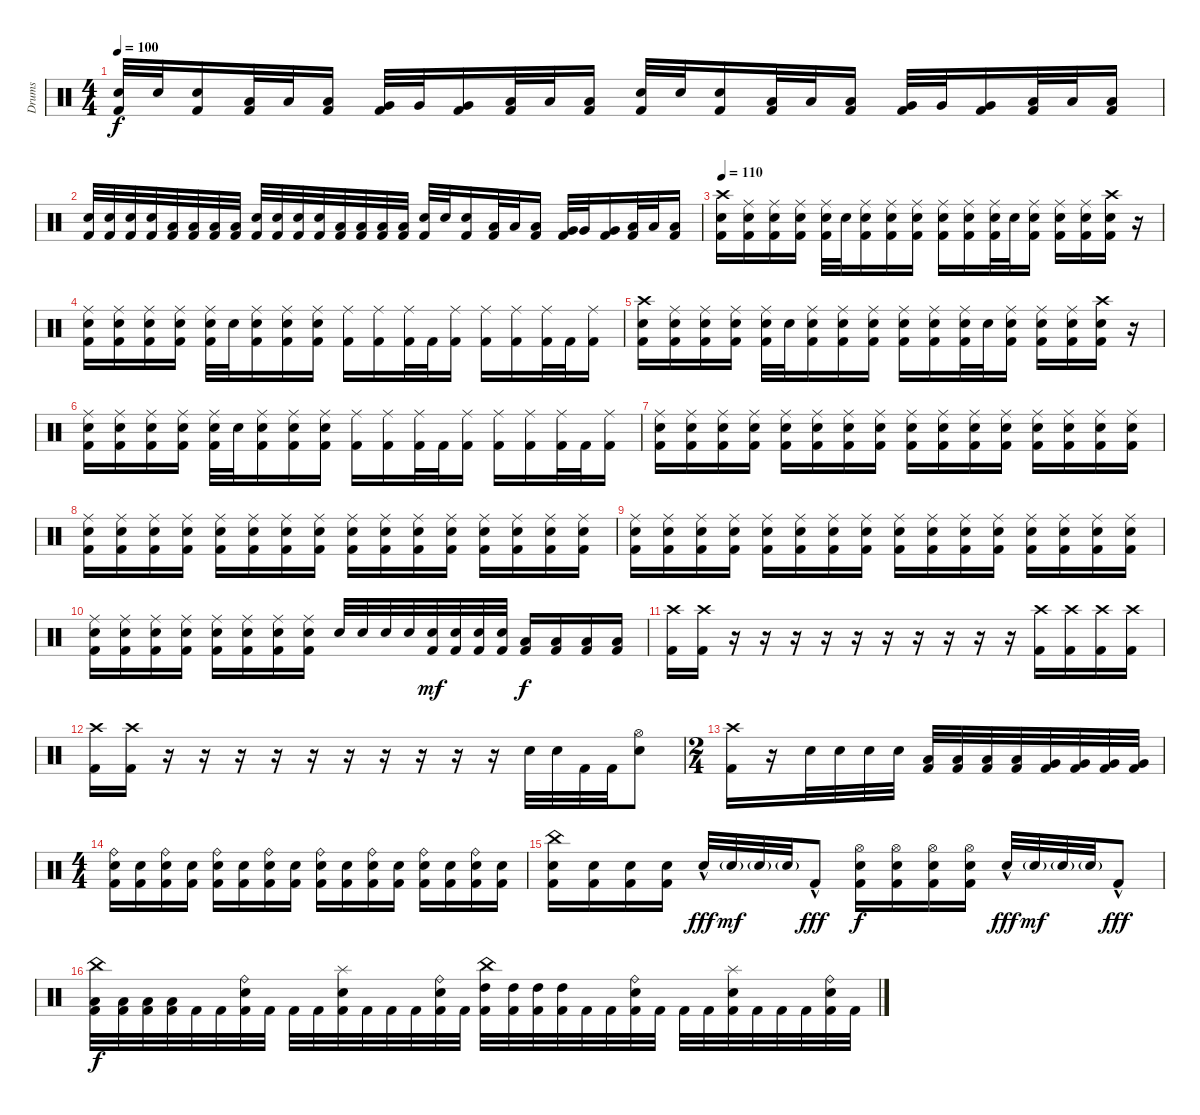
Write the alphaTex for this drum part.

\track ("Drums " "Drums ") {instrument percussion}
\staff {score}
\articulation defaults
\ts (4 4)
\tempo 100
\clef neutral
\ks c
("Kick (hit) 2" "Electric Snare (hit)").32{dy f} "Electric Snare (hit)".32 ("Kick (hit) 2" "Electric Snare (hit)").16 ("Kick (hit) 2" "Low Tom (hit)").32 "Low Tom (hit)".32 ("Kick (hit) 2" "Low Tom (hit)").16 ("Kick (hit) 2" "Very Low Tom (hit)").32 "Very Low Tom (hit)".32 ("Kick (hit) 2" "Very Low Tom (hit)").16 ("Kick (hit) 2" "Low Tom (hit)").32 "Low Tom (hit)".32 ("Kick (hit) 2" "Low Tom (hit)").16 ("Kick (hit) 2" "Electric Snare (hit)").32 "Electric Snare (hit)".32 ("Kick (hit) 2" "Electric Snare (hit)").16 ("Kick (hit) 2" "Low Tom (hit)").32 "Low Tom (hit)".32 ("Kick (hit) 2" "Low Tom (hit)").16 ("Kick (hit) 2" "Very Low Tom (hit)").32 "Very Low Tom (hit)".32 ("Kick (hit) 2" "Very Low Tom (hit)").16 ("Kick (hit) 2" "Low Tom (hit)").32 "Low Tom (hit)".32 ("Kick (hit) 2" "Low Tom (hit)").16 |
("Kick (hit) 2" "Electric Snare (hit)").32 ("Kick (hit) 2" "Electric Snare (hit)").32 ("Kick (hit) 2" "Electric Snare (hit)").32 ("Kick (hit) 2" "Electric Snare (hit)").32 ("Kick (hit) 2" "Low Tom (hit)").32 ("Kick (hit) 2" "Low Tom (hit)").32 ("Kick (hit) 2" "Low Tom (hit)").32 ("Kick (hit) 2" "Low Tom (hit)").32 ("Kick (hit) 2" "Electric Snare (hit)").32 ("Kick (hit) 2" "Electric Snare (hit)").32 ("Kick (hit) 2" "Electric Snare (hit)").32 ("Kick (hit) 2" "Electric Snare (hit)").32 ("Kick (hit) 2" "Low Tom (hit)").32 ("Kick (hit) 2" "Low Tom (hit)").32 ("Kick (hit) 2" "Low Tom (hit)").32 ("Kick (hit) 2" "Low Tom (hit)").32 ("Kick (hit) 2" "Electric Snare (hit)").32 "Electric Snare (hit)".32 ("Kick (hit) 2" "Electric Snare (hit)").16 ("Kick (hit) 2" "Low Tom (hit)").32 "Low Tom (hit)".32 ("Kick (hit) 2" "Low Tom (hit)").16 ("Kick (hit) 2" "Very Low Tom (hit)").32 "Very Low Tom (hit)".32 ("Kick (hit) 2" "Very Low Tom (hit)").16 ("Kick (hit) 2" "Low Tom (hit)").32 "Low Tom (hit)".32 ("Kick (hit) 2" "Low Tom (hit)").16 |
\tempo 110
("Crash high (hit)" "Electric Snare (hit)" "Kick (hit) 2").16 ("Ride (middle)" "Electric Snare (hit)" "Kick (hit) 2").16 ("Ride (middle)" "Electric Snare (hit)" "Kick (hit) 2").16 ("Ride (middle)" "Electric Snare (hit)" "Kick (hit) 2").16 ("Ride (middle)" "Electric Snare (hit)" "Kick (hit) 2").32 "Electric Snare (hit)".32 ("Ride (middle)" "Electric Snare (hit)" "Kick (hit) 2").16 ("Ride (middle)" "Electric Snare (hit)" "Kick (hit) 2").16 ("Ride (middle)" "Electric Snare (hit)" "Kick (hit) 2").16 ("Ride (middle)" "Electric Snare (hit)" "Kick (hit) 2").16 ("Ride (middle)" "Electric Snare (hit)" "Kick (hit) 2").16 ("Ride (middle)" "Electric Snare (hit)" "Kick (hit) 2").32 "Electric Snare (hit)".32 ("Ride (middle)" "Electric Snare (hit)" "Kick (hit) 2").16 ("Ride (middle)" "Electric Snare (hit)" "Kick (hit) 2").16 ("Ride (middle)" "Electric Snare (hit)" "Kick (hit) 2").16 ("Crash high (hit)" "Electric Snare (hit)" "Kick (hit) 2").16 r.16 |
("Ride (middle)" "Electric Snare (hit)" "Kick (hit) 2").16 ("Ride (middle)" "Electric Snare (hit)" "Kick (hit) 2").16 ("Ride (middle)" "Electric Snare (hit)" "Kick (hit) 2").16 ("Ride (middle)" "Electric Snare (hit)" "Kick (hit) 2").16 ("Ride (middle)" "Electric Snare (hit)" "Kick (hit) 2").32 "Electric Snare (hit)".32 ("Ride (middle)" "Electric Snare (hit)" "Kick (hit) 2").16 ("Ride (middle)" "Electric Snare (hit)" "Kick (hit) 2").16 ("Ride (middle)" "Electric Snare (hit)" "Kick (hit) 2").16 ("Ride (middle)" "Kick (hit) 2").16 ("Ride (middle)" "Kick (hit) 2").16 ("Ride (middle)" "Kick (hit) 2").32 "Kick (hit) 2".32 ("Ride (middle)" "Kick (hit) 2").16 ("Ride (middle)" "Kick (hit) 2").16 ("Ride (middle)" "Kick (hit) 2").16 ("Ride (middle)" "Kick (hit) 2").32 "Kick (hit) 2".32 ("Ride (middle)" "Kick (hit) 2").16 |
("Crash high (hit)" "Electric Snare (hit)" "Kick (hit) 2").16 ("Ride (middle)" "Electric Snare (hit)" "Kick (hit) 2").16 ("Ride (middle)" "Electric Snare (hit)" "Kick (hit) 2").16 ("Ride (middle)" "Electric Snare (hit)" "Kick (hit) 2").16 ("Ride (middle)" "Electric Snare (hit)" "Kick (hit) 2").32 "Electric Snare (hit)".32 ("Ride (middle)" "Electric Snare (hit)" "Kick (hit) 2").16 ("Ride (middle)" "Electric Snare (hit)" "Kick (hit) 2").16 ("Ride (middle)" "Electric Snare (hit)" "Kick (hit) 2").16 ("Ride (middle)" "Electric Snare (hit)" "Kick (hit) 2").16 ("Ride (middle)" "Electric Snare (hit)" "Kick (hit) 2").16 ("Ride (middle)" "Electric Snare (hit)" "Kick (hit) 2").32 "Electric Snare (hit)".32 ("Ride (middle)" "Electric Snare (hit)" "Kick (hit) 2").16 ("Ride (middle)" "Electric Snare (hit)" "Kick (hit) 2").16 ("Ride (middle)" "Electric Snare (hit)" "Kick (hit) 2").16 ("Crash high (hit)" "Electric Snare (hit)" "Kick (hit) 2").16 r.16 |
("Ride (middle)" "Electric Snare (hit)" "Kick (hit) 2").16 ("Ride (middle)" "Electric Snare (hit)" "Kick (hit) 2").16 ("Ride (middle)" "Electric Snare (hit)" "Kick (hit) 2").16 ("Ride (middle)" "Electric Snare (hit)" "Kick (hit) 2").16 ("Ride (middle)" "Electric Snare (hit)" "Kick (hit) 2").32 "Electric Snare (hit)".32 ("Ride (middle)" "Electric Snare (hit)" "Kick (hit) 2").16 ("Ride (middle)" "Electric Snare (hit)" "Kick (hit) 2").16 ("Ride (middle)" "Electric Snare (hit)" "Kick (hit) 2").16 ("Ride (middle)" "Kick (hit) 2").16 ("Ride (middle)" "Kick (hit) 2").16 ("Ride (middle)" "Kick (hit) 2").32 "Kick (hit) 2".32 ("Ride (middle)" "Kick (hit) 2").16 ("Ride (middle)" "Kick (hit) 2").16 ("Ride (middle)" "Kick (hit) 2").16 ("Ride (middle)" "Kick (hit) 2").32 "Kick (hit) 2".32 ("Ride (middle)" "Kick (hit) 2").16 |
("Ride (middle)" "Electric Snare (hit)" "Kick (hit) 2").16 ("Ride (middle)" "Electric Snare (hit)" "Kick (hit) 2").16 ("Ride (middle)" "Electric Snare (hit)" "Kick (hit) 2").16 ("Ride (middle)" "Electric Snare (hit)" "Kick (hit) 2").16 ("Ride (middle)" "Electric Snare (hit)" "Kick (hit) 2").16 ("Ride (middle)" "Electric Snare (hit)" "Kick (hit) 2").16 ("Ride (middle)" "Electric Snare (hit)" "Kick (hit) 2").16 ("Ride (middle)" "Electric Snare (hit)" "Kick (hit) 2").16 ("Ride (middle)" "Electric Snare (hit)" "Kick (hit) 2").16 ("Ride (middle)" "Electric Snare (hit)" "Kick (hit) 2").16 ("Ride (middle)" "Electric Snare (hit)" "Kick (hit) 2").16 ("Ride (middle)" "Electric Snare (hit)" "Kick (hit) 2").16 ("Ride (middle)" "Electric Snare (hit)" "Kick (hit) 2").16 ("Ride (middle)" "Electric Snare (hit)" "Kick (hit) 2").16 ("Ride (middle)" "Electric Snare (hit)" "Kick (hit) 2").16 ("Ride (middle)" "Electric Snare (hit)" "Kick (hit) 2").16 |
("Ride (middle)" "Electric Snare (hit)" "Kick (hit) 2").16 ("Ride (middle)" "Electric Snare (hit)" "Kick (hit) 2").16 ("Ride (middle)" "Electric Snare (hit)" "Kick (hit) 2").16 ("Ride (middle)" "Electric Snare (hit)" "Kick (hit) 2").16 ("Ride (middle)" "Electric Snare (hit)" "Kick (hit) 2").16 ("Ride (middle)" "Electric Snare (hit)" "Kick (hit) 2").16 ("Ride (middle)" "Electric Snare (hit)" "Kick (hit) 2").16 ("Ride (middle)" "Electric Snare (hit)" "Kick (hit) 2").16 ("Ride (middle)" "Electric Snare (hit)" "Kick (hit) 2").16 ("Ride (middle)" "Electric Snare (hit)" "Kick (hit) 2").16 ("Ride (middle)" "Electric Snare (hit)" "Kick (hit) 2").16 ("Ride (middle)" "Electric Snare (hit)" "Kick (hit) 2").16 ("Ride (middle)" "Electric Snare (hit)" "Kick (hit) 2").16 ("Ride (middle)" "Electric Snare (hit)" "Kick (hit) 2").16 ("Ride (middle)" "Electric Snare (hit)" "Kick (hit) 2").16 ("Ride (middle)" "Electric Snare (hit)" "Kick (hit) 2").16 |
("Ride (middle)" "Electric Snare (hit)" "Kick (hit) 2").16 ("Ride (middle)" "Electric Snare (hit)" "Kick (hit) 2").16 ("Ride (middle)" "Electric Snare (hit)" "Kick (hit) 2").16 ("Ride (middle)" "Electric Snare (hit)" "Kick (hit) 2").16 ("Ride (middle)" "Electric Snare (hit)" "Kick (hit) 2").16 ("Ride (middle)" "Electric Snare (hit)" "Kick (hit) 2").16 ("Ride (middle)" "Electric Snare (hit)" "Kick (hit) 2").16 ("Ride (middle)" "Electric Snare (hit)" "Kick (hit) 2").16 ("Ride (middle)" "Electric Snare (hit)" "Kick (hit) 2").16 ("Ride (middle)" "Electric Snare (hit)" "Kick (hit) 2").16 ("Ride (middle)" "Electric Snare (hit)" "Kick (hit) 2").16 ("Ride (middle)" "Electric Snare (hit)" "Kick (hit) 2").16 ("Ride (middle)" "Electric Snare (hit)" "Kick (hit) 2").16 ("Ride (middle)" "Electric Snare (hit)" "Kick (hit) 2").16 ("Ride (middle)" "Electric Snare (hit)" "Kick (hit) 2").16 ("Ride (middle)" "Electric Snare (hit)" "Kick (hit) 2").16 |
("Ride (middle)" "Electric Snare (hit)" "Kick (hit) 2").16 ("Ride (middle)" "Electric Snare (hit)" "Kick (hit) 2").16 ("Ride (middle)" "Electric Snare (hit)" "Kick (hit) 2").16 ("Ride (middle)" "Electric Snare (hit)" "Kick (hit) 2").16 ("Ride (middle)" "Electric Snare (hit)" "Kick (hit) 2").16 ("Ride (middle)" "Electric Snare (hit)" "Kick (hit) 2").16 ("Ride (middle)" "Electric Snare (hit)" "Kick (hit) 2").16 ("Ride (middle)" "Electric Snare (hit)" "Kick (hit) 2").16 "Electric Snare (hit)".32 "Electric Snare (hit)".32 "Electric Snare (hit)".32 "Electric Snare (hit)".32 ("Kick (hit) 2" "Electric Snare (hit)").32{dy mf} ("Kick (hit) 2" "Electric Snare (hit)").32 ("Kick (hit) 2" "Electric Snare (hit)").32 ("Kick (hit) 2" "Electric Snare (hit)").32 ("Low Tom (hit)" "Kick (hit) 2").16{dy f} ("Low Tom (hit)" "Kick (hit) 2").16 ("Low Tom (hit)" "Kick (hit) 2").16 ("Low Tom (hit)" "Kick (hit) 2").16 |
("Crash high (hit)" "Kick (hit) 2").16 ("Crash high (hit)" "Kick (hit) 2").16 r.16 r.16 r.16 r.16 r.16 r.16 r.16 r.16 r.16 r.16 ("Crash high (hit)" "Kick (hit) 2").16 ("Crash high (hit)" "Kick (hit) 2").16 ("Crash high (hit)" "Kick (hit) 2").16 ("Crash high (hit)" "Kick (hit) 2").16 |
("Crash high (hit)" "Kick (hit) 2").16 ("Crash high (hit)" "Kick (hit) 2").16 r.16 r.16 r.16 r.16 r.16 r.16 r.16 r.16 r.16 r.16 "Electric Snare (hit)".32 "Electric Snare (hit)".32 "Kick (hit) 2".32 "Kick (hit) 2".32 ("Hi-Hat (open)" "Electric Snare (hit)").8 |
\ts (2 4)
("Crash high (hit)" "Kick (hit) 2").16 r.16 "Electric Snare (hit)".32 "Electric Snare (hit)".32 "Electric Snare (hit)".32 "Electric Snare (hit)".32 ("Low Tom (hit)" "Kick (hit) 2").32 ("Low Tom (hit)" "Kick (hit) 2").32 ("Low Tom (hit)" "Kick (hit) 2").32 ("Low Tom (hit)" "Kick (hit) 2").32 ("Very Low Tom (hit)" "Kick (hit) 2").32 ("Very Low Tom (hit)" "Kick (hit) 2").32 ("Very Low Tom (hit)" "Kick (hit) 2").32 ("Very Low Tom (hit)" "Kick (hit) 2").32 |
\ts (4 4)
("Ride (bell)" "Electric Snare (hit)" "Kick (hit) 2").16 ("Electric Snare (hit)" "Kick (hit) 2").16 ("Ride (bell)" "Electric Snare (hit)" "Kick (hit) 2").16 ("Electric Snare (hit)" "Kick (hit) 2").16 ("Ride (bell)" "Electric Snare (hit)" "Kick (hit) 2").16 ("Electric Snare (hit)" "Kick (hit) 2").16 ("Ride (bell)" "Electric Snare (hit)" "Kick (hit) 2").16 ("Electric Snare (hit)" "Kick (hit) 2").16 ("Ride (bell)" "Electric Snare (hit)" "Kick (hit) 2").16 ("Electric Snare (hit)" "Kick (hit) 2").16 ("Ride (bell)" "Electric Snare (hit)" "Kick (hit) 2").16 ("Electric Snare (hit)" "Kick (hit) 2").16 ("Ride (bell)" "Electric Snare (hit)" "Kick (hit) 2").16 ("Electric Snare (hit)" "Kick (hit) 2").16 ("Ride (bell)" "Electric Snare (hit)" "Kick (hit) 2").16 ("Electric Snare (hit)" "Kick (hit) 2").16 |
("China (hit)" "Electric Snare (hit)" "Kick (hit) 2").16 ("Electric Snare (hit)" "Kick (hit) 2").16 ("Electric Snare (hit)" "Kick (hit) 2").16 ("Electric Snare (hit)" "Kick (hit) 2").16 "Electric Snare (hit)"{hac}.32{dy fff} "Electric Snare (hit)"{g}.32{dy mf} "Electric Snare (hit)"{g}.32 "Electric Snare (hit)"{g}.32 "Kick (hit) 2"{hac}.8{dy fff} ("Hi-Hat (open)" "Electric Snare (hit)" "Kick (hit) 2").16{dy f} ("Hi-Hat (open)" "Electric Snare (hit)" "Kick (hit) 2").16 ("Hi-Hat (open)" "Electric Snare (hit)" "Kick (hit) 2").16 ("Hi-Hat (open)" "Electric Snare (hit)" "Kick (hit) 2").16 "Electric Snare (hit)"{hac}.32{dy fff} "Electric Snare (hit)"{g}.32{dy mf} "Electric Snare (hit)"{g}.32 "Electric Snare (hit)"{g}.32 "Kick (hit) 2"{hac}.8{dy fff} |
("China (hit)" "Low Tom (hit)" "Kick (hit) 2").32{dy f} ("Low Tom (hit)" "Kick (hit) 2").32 ("Low Tom (hit)" "Kick (hit) 2").32 ("Low Tom (hit)" "Kick (hit) 2").32 "Kick (hit) 2".32 "Kick (hit) 2".32 ("Ride (bell)" "Electric Snare (hit)" "Kick (hit) 2").32 "Kick (hit) 2".32 "Kick (hit) 2".32 "Kick (hit) 2".32 ("Splash (hit)" "Electric Snare (hit)" "Kick (hit) 2").32 "Kick (hit) 2".32 "Kick (hit) 2".32 "Kick (hit) 2".32 ("Ride (bell)" "Electric Snare (hit)" "Kick (hit) 2").32 "Kick (hit) 2".32 ("China (hit)" "High Tom (hit)" "Kick (hit) 2").32 ("High Tom (hit)" "Kick (hit) 2").32 ("High Tom (hit)" "Kick (hit) 2").32 ("High Tom (hit)" "Kick (hit) 2").32 "Kick (hit) 2".32 "Kick (hit) 2".32 ("Ride (bell)" "Electric Snare (hit)" "Kick (hit) 2").32 "Kick (hit) 2".32 "Kick (hit) 2".32 "Kick (hit) 2".32 ("Splash (hit)" "Electric Snare (hit)" "Kick (hit) 2").32 "Kick (hit) 2".32 "Kick (hit) 2".32 "Kick (hit) 2".32 ("Ride (bell)" "Electric Snare (hit)" "Kick (hit) 2").32 "Kick (hit) 2".32
